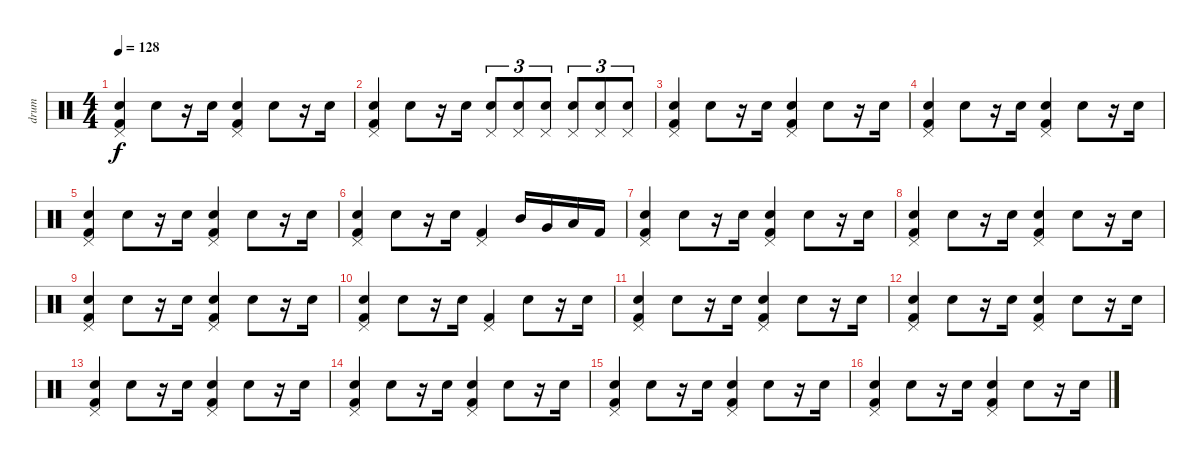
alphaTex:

\track ("drum" "drum") {instrument percussion}
\staff {score}
\articulation defaults
\ts (4 4)
\tempo 128
\clef neutral
\ks c
("Pedal Hi-Hat (hit)" "Kick (hit) 2" "Electric Snare (hit)").4{dy f} "Electric Snare (hit)".8 r.16 "Electric Snare (hit)".16 ("Pedal Hi-Hat (hit)" "Kick (hit) 2" "Electric Snare (hit)").4 "Electric Snare (hit)".8 r.16 "Electric Snare (hit)".16 |
("Pedal Hi-Hat (hit)" "Kick (hit) 2" "Electric Snare (hit)").4 "Electric Snare (hit)".8 r.16 "Electric Snare (hit)".16 ("Pedal Hi-Hat (hit)" "Electric Snare (hit)").8{tu (3 2)} ("Pedal Hi-Hat (hit)" "Electric Snare (hit)").8{tu (3 2)} ("Pedal Hi-Hat (hit)" "Electric Snare (hit)").8{tu (3 2)} ("Pedal Hi-Hat (hit)" "Electric Snare (hit)").8{tu (3 2)} ("Pedal Hi-Hat (hit)" "Electric Snare (hit)").8{tu (3 2)} ("Pedal Hi-Hat (hit)" "Electric Snare (hit)").8{tu (3 2)} |
("Pedal Hi-Hat (hit)" "Kick (hit) 2" "Electric Snare (hit)").4 "Electric Snare (hit)".8 r.16 "Electric Snare (hit)".16 ("Pedal Hi-Hat (hit)" "Kick (hit) 2" "Electric Snare (hit)").4 "Electric Snare (hit)".8 r.16 "Electric Snare (hit)".16 |
("Pedal Hi-Hat (hit)" "Kick (hit) 2" "Electric Snare (hit)").4 "Electric Snare (hit)".8 r.16 "Electric Snare (hit)".16 ("Pedal Hi-Hat (hit)" "Kick (hit) 2" "Electric Snare (hit)").4 "Electric Snare (hit)".8 r.16 "Electric Snare (hit)".16 |
("Pedal Hi-Hat (hit)" "Kick (hit) 2" "Electric Snare (hit)").4 "Electric Snare (hit)".8 r.16 "Electric Snare (hit)".16 ("Pedal Hi-Hat (hit)" "Kick (hit) 2" "Electric Snare (hit)").4 "Electric Snare (hit)".8 r.16 "Electric Snare (hit)".16 |
("Pedal Hi-Hat (hit)" "Kick (hit) 2" "Electric Snare (hit)").4 "Electric Snare (hit)".8 r.16 "Electric Snare (hit)".16 ("Pedal Hi-Hat (hit)" "Kick (hit) 2").4 "Mid Tom (hit)".16 "Very Low Tom (hit)".16 "Low Floor Tom (hit)".16 "Kick (hit) 2".16 |
("Pedal Hi-Hat (hit)" "Kick (hit) 2" "Electric Snare (hit)").4 "Electric Snare (hit)".8 r.16 "Electric Snare (hit)".16 ("Pedal Hi-Hat (hit)" "Kick (hit) 2" "Electric Snare (hit)").4 "Electric Snare (hit)".8 r.16 "Electric Snare (hit)".16 |
("Pedal Hi-Hat (hit)" "Kick (hit) 2" "Electric Snare (hit)").4 "Electric Snare (hit)".8 r.16 "Electric Snare (hit)".16 ("Pedal Hi-Hat (hit)" "Kick (hit) 2" "Electric Snare (hit)").4 "Electric Snare (hit)".8 r.16 "Electric Snare (hit)".16 |
("Pedal Hi-Hat (hit)" "Kick (hit) 2" "Electric Snare (hit)").4 "Electric Snare (hit)".8 r.16 "Electric Snare (hit)".16 ("Pedal Hi-Hat (hit)" "Kick (hit) 2" "Electric Snare (hit)").4 "Electric Snare (hit)".8 r.16 "Electric Snare (hit)".16 |
("Pedal Hi-Hat (hit)" "Kick (hit) 2" "Electric Snare (hit)").4 "Electric Snare (hit)".8 r.16 "Electric Snare (hit)".16 ("Pedal Hi-Hat (hit)" "Kick (hit) 2").4 "Electric Snare (hit)".8 r.16 "Electric Snare (hit)".16 |
("Pedal Hi-Hat (hit)" "Kick (hit) 2" "Electric Snare (hit)").4 "Electric Snare (hit)".8 r.16 "Electric Snare (hit)".16 ("Pedal Hi-Hat (hit)" "Kick (hit) 2" "Electric Snare (hit)").4 "Electric Snare (hit)".8 r.16 "Electric Snare (hit)".16 |
("Pedal Hi-Hat (hit)" "Kick (hit) 2" "Electric Snare (hit)").4 "Electric Snare (hit)".8 r.16 "Electric Snare (hit)".16 ("Pedal Hi-Hat (hit)" "Kick (hit) 2" "Electric Snare (hit)").4 "Electric Snare (hit)".8 r.16 "Electric Snare (hit)".16 |
("Pedal Hi-Hat (hit)" "Kick (hit) 2" "Electric Snare (hit)").4 "Electric Snare (hit)".8 r.16 "Electric Snare (hit)".16 ("Pedal Hi-Hat (hit)" "Kick (hit) 2" "Electric Snare (hit)").4 "Electric Snare (hit)".8 r.16 "Electric Snare (hit)".16 |
("Pedal Hi-Hat (hit)" "Kick (hit) 2" "Electric Snare (hit)").4 "Electric Snare (hit)".8 r.16 "Electric Snare (hit)".16 ("Pedal Hi-Hat (hit)" "Kick (hit) 2" "Electric Snare (hit)").4 "Electric Snare (hit)".8 r.16 "Electric Snare (hit)".16 |
("Pedal Hi-Hat (hit)" "Kick (hit) 2" "Electric Snare (hit)").4 "Electric Snare (hit)".8 r.16 "Electric Snare (hit)".16 ("Pedal Hi-Hat (hit)" "Kick (hit) 2" "Electric Snare (hit)").4 "Electric Snare (hit)".8 r.16 "Electric Snare (hit)".16 |
("Pedal Hi-Hat (hit)" "Kick (hit) 2" "Electric Snare (hit)").4 "Electric Snare (hit)".8 r.16 "Electric Snare (hit)".16 ("Pedal Hi-Hat (hit)" "Kick (hit) 2" "Electric Snare (hit)").4 "Electric Snare (hit)".8 r.16 "Electric Snare (hit)".16
